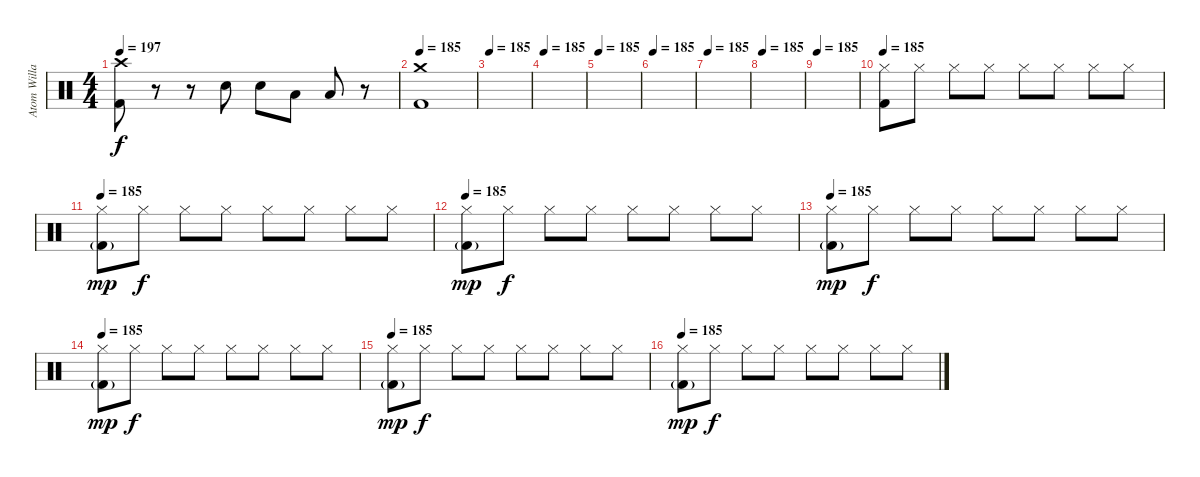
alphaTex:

\track ("Atom Willard Drums" "Atom Willa") {instrument percussion}
\staff {score}
\articulation defaults
\ts (4 4)
\tempo 197
\clef neutral
\ks c
("Crash high (hit)" "Kick (hit) 2").8{dy f} r.8 r.8 "Electric Snare (hit)".8 "Electric Snare (hit)".8 "Low Tom (hit)".8 "Low Tom (hit)".8 r.8 |
\tempo 185
("Crash medium (hit)" "Kick (hit) 2").1 |
\tempo 185
|
\tempo 185
|
\tempo 185
|
\tempo 185
|
\tempo 185
|
\tempo 185
|
\tempo 185
|
\tempo 185
("Hi-Hat (closed)" "Kick (hit) 2").8 "Hi-Hat (closed)".8 "Hi-Hat (closed)".8 "Hi-Hat (closed)".8 "Hi-Hat (closed)".8 "Hi-Hat (closed)".8 "Hi-Hat (closed)".8 "Hi-Hat (closed)".8 |
\tempo 185
("Hi-Hat (closed)" "Kick (hit) 2"{g}).8{dy mp} "Hi-Hat (closed)".8{dy f} "Hi-Hat (closed)".8 "Hi-Hat (closed)".8 "Hi-Hat (closed)".8 "Hi-Hat (closed)".8 "Hi-Hat (closed)".8 "Hi-Hat (closed)".8 |
\tempo 185
("Hi-Hat (closed)" "Kick (hit) 2"{g}).8{dy mp} "Hi-Hat (closed)".8{dy f} "Hi-Hat (closed)".8 "Hi-Hat (closed)".8 "Hi-Hat (closed)".8 "Hi-Hat (closed)".8 "Hi-Hat (closed)".8 "Hi-Hat (closed)".8 |
\tempo 185
("Hi-Hat (closed)" "Kick (hit) 2"{g}).8{dy mp} "Hi-Hat (closed)".8{dy f} "Hi-Hat (closed)".8 "Hi-Hat (closed)".8 "Hi-Hat (closed)".8 "Hi-Hat (closed)".8 "Hi-Hat (closed)".8 "Hi-Hat (closed)".8 |
\tempo 185
("Hi-Hat (closed)" "Kick (hit) 2"{g}).8{dy mp} "Hi-Hat (closed)".8{dy f} "Hi-Hat (closed)".8 "Hi-Hat (closed)".8 "Hi-Hat (closed)".8 "Hi-Hat (closed)".8 "Hi-Hat (closed)".8 "Hi-Hat (closed)".8 |
\tempo 185
("Hi-Hat (closed)" "Kick (hit) 2"{g}).8{dy mp} "Hi-Hat (closed)".8{dy f} "Hi-Hat (closed)".8 "Hi-Hat (closed)".8 "Hi-Hat (closed)".8 "Hi-Hat (closed)".8 "Hi-Hat (closed)".8 "Hi-Hat (closed)".8 |
\tempo 185
("Hi-Hat (closed)" "Kick (hit) 2"{g}).8{dy mp} "Hi-Hat (closed)".8{dy f} "Hi-Hat (closed)".8 "Hi-Hat (closed)".8 "Hi-Hat (closed)".8 "Hi-Hat (closed)".8 "Hi-Hat (closed)".8 "Hi-Hat (closed)".8
